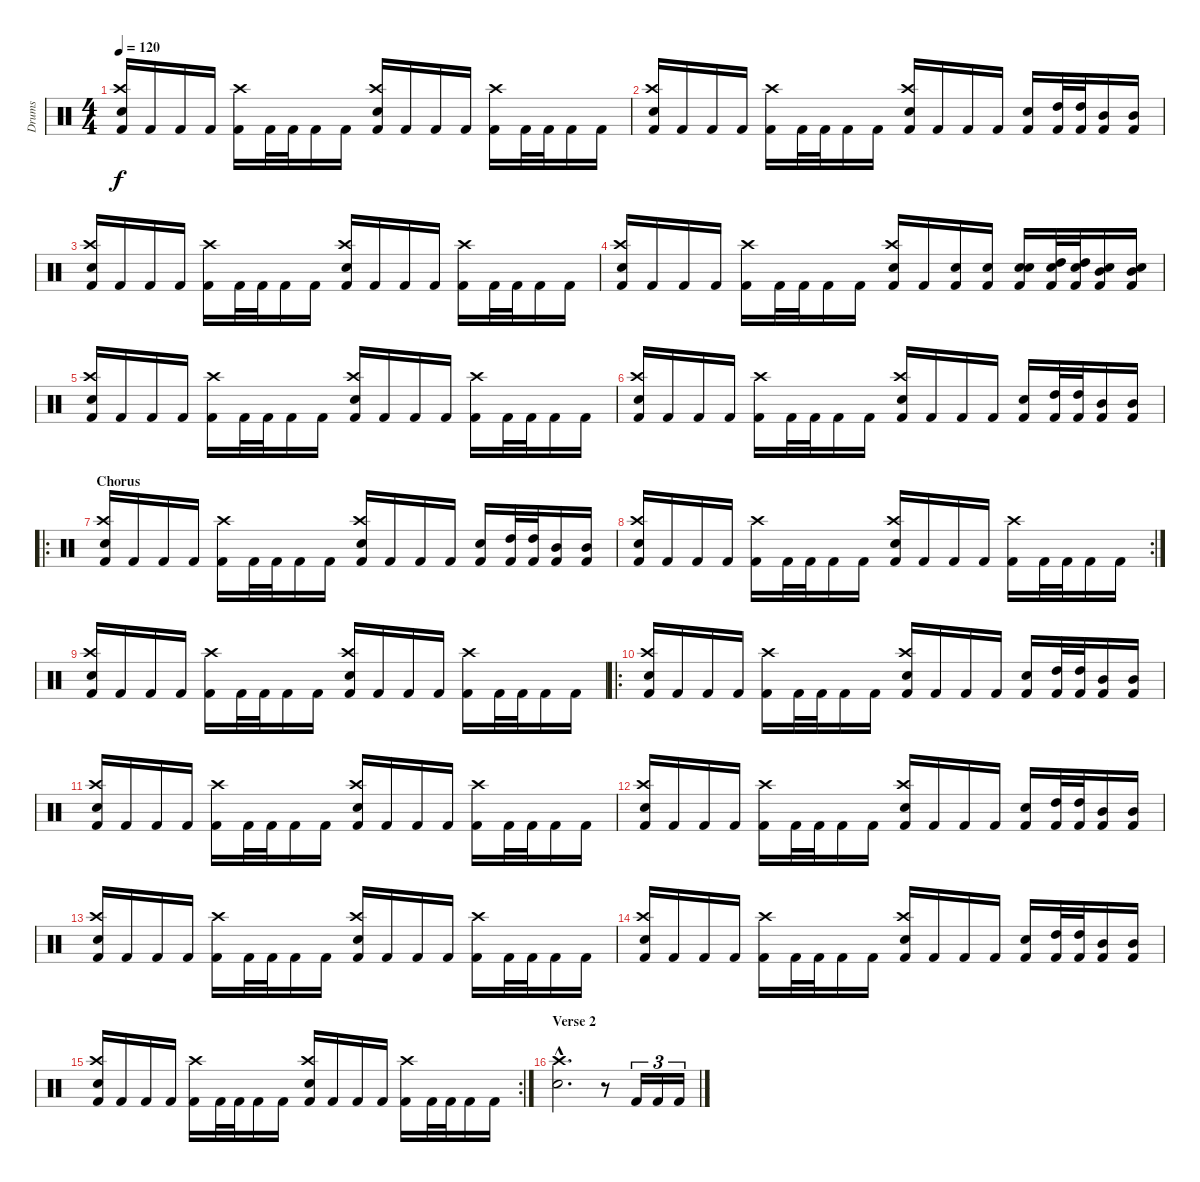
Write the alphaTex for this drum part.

\track ("Drums" "Drums") {instrument percussion}
\staff {score}
\articulation defaults
\ts (4 4)
\tempo 120
\clef neutral
\ks c
("Kick (hit) 2" "Crash high (hit)" "Electric Snare (hit)").16{dy f} "Kick (hit) 2".16 "Kick (hit) 2".16 "Kick (hit) 2".16 ("Kick (hit) 2" "Crash high (hit)").16 "Kick (hit) 2".32 "Kick (hit) 2".32 "Kick (hit) 2".16 "Kick (hit) 2".16 ("Kick (hit) 2" "Crash high (hit)" "Electric Snare (hit)").16 "Kick (hit) 2".16 "Kick (hit) 2".16 "Kick (hit) 2".16 ("Kick (hit) 2" "Crash high (hit)").16 "Kick (hit) 2".32 "Kick (hit) 2".32 "Kick (hit) 2".16 "Kick (hit) 2".16 |
("Kick (hit) 2" "Crash high (hit)" "Electric Snare (hit)").16 "Kick (hit) 2".16 "Kick (hit) 2".16 "Kick (hit) 2".16 ("Kick (hit) 2" "Crash high (hit)").16 "Kick (hit) 2".32 "Kick (hit) 2".32 "Kick (hit) 2".16 "Kick (hit) 2".16 ("Kick (hit) 2" "Crash high (hit)" "Electric Snare (hit)").16 "Kick (hit) 2".16 "Kick (hit) 2".16 "Kick (hit) 2".16 ("Kick (hit) 2" "Electric Snare (hit)").16 ("Kick (hit) 2" "High Tom (hit)").32 ("Kick (hit) 2" "High Tom (hit)").32 ("Kick (hit) 2" "Mid Tom (hit)").16 ("Kick (hit) 2" "Mid Tom (hit)").16 |
("Kick (hit) 2" "Crash high (hit)" "Electric Snare (hit)").16 "Kick (hit) 2".16 "Kick (hit) 2".16 "Kick (hit) 2".16 ("Kick (hit) 2" "Crash high (hit)").16 "Kick (hit) 2".32 "Kick (hit) 2".32 "Kick (hit) 2".16 "Kick (hit) 2".16 ("Kick (hit) 2" "Crash high (hit)" "Electric Snare (hit)").16 "Kick (hit) 2".16 "Kick (hit) 2".16 "Kick (hit) 2".16 ("Kick (hit) 2" "Crash high (hit)").16 "Kick (hit) 2".32 "Kick (hit) 2".32 "Kick (hit) 2".16 "Kick (hit) 2".16 |
("Kick (hit) 2" "Crash high (hit)" "Electric Snare (hit)").16 "Kick (hit) 2".16 "Kick (hit) 2".16 "Kick (hit) 2".16 ("Kick (hit) 2" "Crash high (hit)").16 "Kick (hit) 2".32 "Kick (hit) 2".32 "Kick (hit) 2".16 "Kick (hit) 2".16 ("Kick (hit) 2" "Crash high (hit)" "Electric Snare (hit)").16 "Kick (hit) 2".16 ("Kick (hit) 2" "Electric Snare (hit)").16 ("Kick (hit) 2" "Electric Snare (hit)").16 ("Kick (hit) 2" "Electric Snare (hit)" "Electric Snare (hit)").16 ("Kick (hit) 2" "Electric Snare (hit)" "High Tom (hit)").32 ("Kick (hit) 2" "Electric Snare (hit)" "High Tom (hit)").32 ("Kick (hit) 2" "Electric Snare (hit)" "Mid Tom (hit)").16 ("Kick (hit) 2" "Electric Snare (hit)" "Mid Tom (hit)").16 |
("Kick (hit) 2" "Crash high (hit)" "Electric Snare (hit)").16 "Kick (hit) 2".16 "Kick (hit) 2".16 "Kick (hit) 2".16 ("Kick (hit) 2" "Crash high (hit)").16 "Kick (hit) 2".32 "Kick (hit) 2".32 "Kick (hit) 2".16 "Kick (hit) 2".16 ("Kick (hit) 2" "Crash high (hit)" "Electric Snare (hit)").16 "Kick (hit) 2".16 "Kick (hit) 2".16 "Kick (hit) 2".16 ("Kick (hit) 2" "Crash high (hit)").16 "Kick (hit) 2".32 "Kick (hit) 2".32 "Kick (hit) 2".16 "Kick (hit) 2".16 |
("Kick (hit) 2" "Crash high (hit)" "Electric Snare (hit)").16 "Kick (hit) 2".16 "Kick (hit) 2".16 "Kick (hit) 2".16 ("Kick (hit) 2" "Crash high (hit)").16 "Kick (hit) 2".32 "Kick (hit) 2".32 "Kick (hit) 2".16 "Kick (hit) 2".16 ("Kick (hit) 2" "Crash high (hit)" "Electric Snare (hit)").16 "Kick (hit) 2".16 "Kick (hit) 2".16 "Kick (hit) 2".16 ("Kick (hit) 2" "Electric Snare (hit)").16 ("Kick (hit) 2" "High Tom (hit)").32 ("Kick (hit) 2" "High Tom (hit)").32 ("Kick (hit) 2" "Mid Tom (hit)").16 ("Kick (hit) 2" "Mid Tom (hit)").16 |
\ro
\section ("" "Chorus")
("Kick (hit) 2" "Crash high (hit)" "Electric Snare (hit)").16 "Kick (hit) 2".16 "Kick (hit) 2".16 "Kick (hit) 2".16 ("Kick (hit) 2" "Crash high (hit)").16 "Kick (hit) 2".32 "Kick (hit) 2".32 "Kick (hit) 2".16 "Kick (hit) 2".16 ("Kick (hit) 2" "Crash high (hit)" "Electric Snare (hit)").16 "Kick (hit) 2".16 "Kick (hit) 2".16 "Kick (hit) 2".16 ("Kick (hit) 2" "Electric Snare (hit)").16 ("Kick (hit) 2" "High Tom (hit)").32 ("Kick (hit) 2" "High Tom (hit)").32 ("Kick (hit) 2" "Mid Tom (hit)").16 ("Kick (hit) 2" "Mid Tom (hit)").16 |
\rc 2
("Kick (hit) 2" "Crash high (hit)" "Electric Snare (hit)").16 "Kick (hit) 2".16 "Kick (hit) 2".16 "Kick (hit) 2".16 ("Kick (hit) 2" "Crash high (hit)").16 "Kick (hit) 2".32 "Kick (hit) 2".32 "Kick (hit) 2".16 "Kick (hit) 2".16 ("Kick (hit) 2" "Crash high (hit)" "Electric Snare (hit)").16 "Kick (hit) 2".16 "Kick (hit) 2".16 "Kick (hit) 2".16 ("Kick (hit) 2" "Crash high (hit)").16 "Kick (hit) 2".32 "Kick (hit) 2".32 "Kick (hit) 2".16 "Kick (hit) 2".16 |
("Kick (hit) 2" "Crash high (hit)" "Electric Snare (hit)").16 "Kick (hit) 2".16 "Kick (hit) 2".16 "Kick (hit) 2".16 ("Kick (hit) 2" "Crash high (hit)").16 "Kick (hit) 2".32 "Kick (hit) 2".32 "Kick (hit) 2".16 "Kick (hit) 2".16 ("Kick (hit) 2" "Crash high (hit)" "Electric Snare (hit)").16 "Kick (hit) 2".16 "Kick (hit) 2".16 "Kick (hit) 2".16 ("Kick (hit) 2" "Crash high (hit)").16 "Kick (hit) 2".32 "Kick (hit) 2".32 "Kick (hit) 2".16 "Kick (hit) 2".16 |
\ro
("Kick (hit) 2" "Crash high (hit)" "Electric Snare (hit)").16 "Kick (hit) 2".16 "Kick (hit) 2".16 "Kick (hit) 2".16 ("Kick (hit) 2" "Crash high (hit)").16 "Kick (hit) 2".32 "Kick (hit) 2".32 "Kick (hit) 2".16 "Kick (hit) 2".16 ("Kick (hit) 2" "Crash high (hit)" "Electric Snare (hit)").16 "Kick (hit) 2".16 "Kick (hit) 2".16 "Kick (hit) 2".16 ("Kick (hit) 2" "Electric Snare (hit)").16 ("Kick (hit) 2" "High Tom (hit)").32 ("Kick (hit) 2" "High Tom (hit)").32 ("Kick (hit) 2" "Mid Tom (hit)").16 ("Kick (hit) 2" "Mid Tom (hit)").16 |
("Kick (hit) 2" "Crash high (hit)" "Electric Snare (hit)").16 "Kick (hit) 2".16 "Kick (hit) 2".16 "Kick (hit) 2".16 ("Kick (hit) 2" "Crash high (hit)").16 "Kick (hit) 2".32 "Kick (hit) 2".32 "Kick (hit) 2".16 "Kick (hit) 2".16 ("Kick (hit) 2" "Crash high (hit)" "Electric Snare (hit)").16 "Kick (hit) 2".16 "Kick (hit) 2".16 "Kick (hit) 2".16 ("Kick (hit) 2" "Crash high (hit)").16 "Kick (hit) 2".32 "Kick (hit) 2".32 "Kick (hit) 2".16 "Kick (hit) 2".16 |
("Kick (hit) 2" "Crash high (hit)" "Electric Snare (hit)").16 "Kick (hit) 2".16 "Kick (hit) 2".16 "Kick (hit) 2".16 ("Kick (hit) 2" "Crash high (hit)").16 "Kick (hit) 2".32 "Kick (hit) 2".32 "Kick (hit) 2".16 "Kick (hit) 2".16 ("Kick (hit) 2" "Crash high (hit)" "Electric Snare (hit)").16 "Kick (hit) 2".16 "Kick (hit) 2".16 "Kick (hit) 2".16 ("Kick (hit) 2" "Electric Snare (hit)").16 ("Kick (hit) 2" "High Tom (hit)").32 ("Kick (hit) 2" "High Tom (hit)").32 ("Kick (hit) 2" "Mid Tom (hit)").16 ("Kick (hit) 2" "Mid Tom (hit)").16 |
("Kick (hit) 2" "Crash high (hit)" "Electric Snare (hit)").16 "Kick (hit) 2".16 "Kick (hit) 2".16 "Kick (hit) 2".16 ("Kick (hit) 2" "Crash high (hit)").16 "Kick (hit) 2".32 "Kick (hit) 2".32 "Kick (hit) 2".16 "Kick (hit) 2".16 ("Kick (hit) 2" "Crash high (hit)" "Electric Snare (hit)").16 "Kick (hit) 2".16 "Kick (hit) 2".16 "Kick (hit) 2".16 ("Kick (hit) 2" "Crash high (hit)").16 "Kick (hit) 2".32 "Kick (hit) 2".32 "Kick (hit) 2".16 "Kick (hit) 2".16 |
("Kick (hit) 2" "Crash high (hit)" "Electric Snare (hit)").16 "Kick (hit) 2".16 "Kick (hit) 2".16 "Kick (hit) 2".16 ("Kick (hit) 2" "Crash high (hit)").16 "Kick (hit) 2".32 "Kick (hit) 2".32 "Kick (hit) 2".16 "Kick (hit) 2".16 ("Kick (hit) 2" "Crash high (hit)" "Electric Snare (hit)").16 "Kick (hit) 2".16 "Kick (hit) 2".16 "Kick (hit) 2".16 ("Kick (hit) 2" "Electric Snare (hit)").16 ("Kick (hit) 2" "High Tom (hit)").32 ("Kick (hit) 2" "High Tom (hit)").32 ("Kick (hit) 2" "Mid Tom (hit)").16 ("Kick (hit) 2" "Mid Tom (hit)").16 |
\rc 2
("Kick (hit) 2" "Crash high (hit)" "Electric Snare (hit)").16 "Kick (hit) 2".16 "Kick (hit) 2".16 "Kick (hit) 2".16 ("Kick (hit) 2" "Crash high (hit)").16 "Kick (hit) 2".32 "Kick (hit) 2".32 "Kick (hit) 2".16 "Kick (hit) 2".16 ("Kick (hit) 2" "Crash high (hit)" "Electric Snare (hit)").16 "Kick (hit) 2".16 "Kick (hit) 2".16 "Kick (hit) 2".16 ("Kick (hit) 2" "Crash high (hit)").16 "Kick (hit) 2".32 "Kick (hit) 2".32 "Kick (hit) 2".16 "Kick (hit) 2".16 |
\section ("" "Verse 2")
("Electric Snare (hit)"{hac} "Crash high (hit)"{hac}).2{d} r.8 "Kick (hit) 2".16{tu (3 2)} "Kick (hit) 2".16{tu (3 2)} "Kick (hit) 2".16{tu (3 2)}
